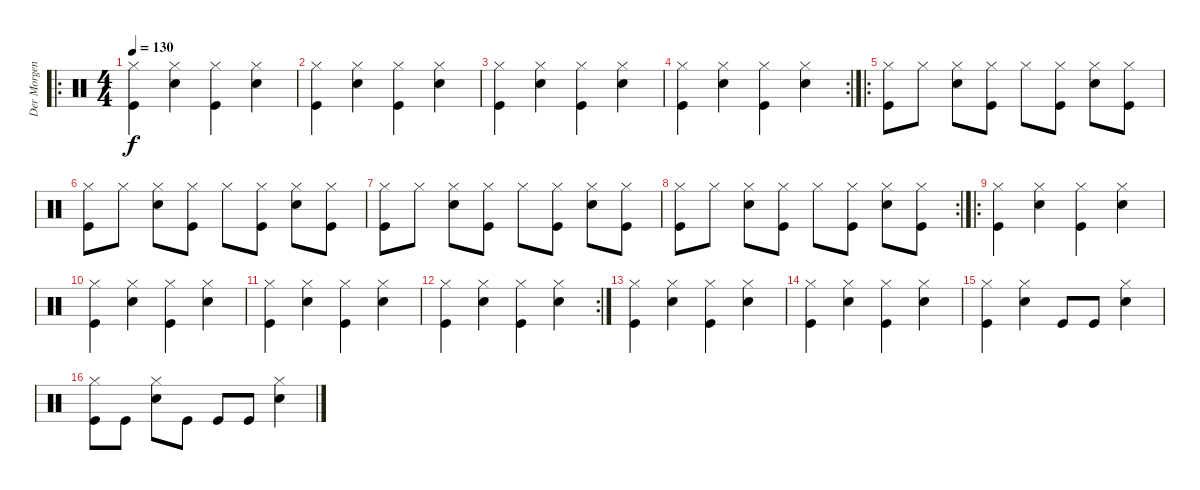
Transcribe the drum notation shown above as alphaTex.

\track ("Der Morgenstern" "Der Morgen") {instrument percussion}
\staff {score}
\articulation defaults
\ro
\ts (4 4)
\tempo 130
\clef neutral
\ks c
("Hi-Hat (closed)" "Kick (hit)").4{dy f} ("Hi-Hat (closed)" "Snare (hit) 2").4 ("Hi-Hat (closed)" "Kick (hit)").4 ("Hi-Hat (closed)" "Snare (hit) 2").4 |
("Hi-Hat (closed)" "Kick (hit)").4 ("Hi-Hat (closed)" "Snare (hit) 2").4 ("Hi-Hat (closed)" "Kick (hit)").4 ("Hi-Hat (closed)" "Snare (hit) 2").4 |
("Hi-Hat (closed)" "Kick (hit)").4 ("Hi-Hat (closed)" "Snare (hit) 2").4 ("Hi-Hat (closed)" "Kick (hit)").4 ("Hi-Hat (closed)" "Snare (hit) 2").4 |
\rc 2
("Hi-Hat (closed)" "Kick (hit)").4 ("Hi-Hat (closed)" "Snare (hit) 2").4 ("Hi-Hat (closed)" "Kick (hit)").4 ("Hi-Hat (closed)" "Snare (hit) 2").4 |
\ro
("Hi-Hat (closed)" "Kick (hit)").8 "Hi-Hat (closed)".8 ("Hi-Hat (closed)" "Snare (hit) 2").8 ("Hi-Hat (closed)" "Kick (hit)").8 "Hi-Hat (closed)".8 ("Hi-Hat (closed)" "Kick (hit)").8 ("Hi-Hat (closed)" "Snare (hit) 2").8 ("Hi-Hat (closed)" "Kick (hit)").8 |
("Hi-Hat (closed)" "Kick (hit)").8 "Hi-Hat (closed)".8 ("Hi-Hat (closed)" "Snare (hit) 2").8 ("Hi-Hat (closed)" "Kick (hit)").8 "Hi-Hat (closed)".8 ("Hi-Hat (closed)" "Kick (hit)").8 ("Hi-Hat (closed)" "Snare (hit) 2").8 ("Hi-Hat (closed)" "Kick (hit)").8 |
("Hi-Hat (closed)" "Kick (hit)").8 "Hi-Hat (closed)".8 ("Hi-Hat (closed)" "Snare (hit) 2").8 ("Hi-Hat (closed)" "Kick (hit)").8 "Hi-Hat (closed)".8 ("Hi-Hat (closed)" "Kick (hit)").8 ("Hi-Hat (closed)" "Snare (hit) 2").8 ("Hi-Hat (closed)" "Kick (hit)").8 |
\rc 2
("Hi-Hat (closed)" "Kick (hit)").8 "Hi-Hat (closed)".8 ("Hi-Hat (closed)" "Snare (hit) 2").8 ("Hi-Hat (closed)" "Kick (hit)").8 "Hi-Hat (closed)".8 ("Hi-Hat (closed)" "Kick (hit)").8 ("Hi-Hat (closed)" "Snare (hit) 2").8 ("Hi-Hat (closed)" "Kick (hit)").8 |
\ro
("Hi-Hat (closed)" "Kick (hit)").4 ("Hi-Hat (closed)" "Snare (hit) 2").4 ("Hi-Hat (closed)" "Kick (hit)").4 ("Hi-Hat (closed)" "Snare (hit) 2").4 |
("Hi-Hat (closed)" "Kick (hit)").4 ("Hi-Hat (closed)" "Snare (hit) 2").4 ("Hi-Hat (closed)" "Kick (hit)").4 ("Hi-Hat (closed)" "Snare (hit) 2").4 |
("Hi-Hat (closed)" "Kick (hit)").4 ("Hi-Hat (closed)" "Snare (hit) 2").4 ("Hi-Hat (closed)" "Kick (hit)").4 ("Hi-Hat (closed)" "Snare (hit) 2").4 |
\rc 2
("Hi-Hat (closed)" "Kick (hit)").4 ("Hi-Hat (closed)" "Snare (hit) 2").4 ("Hi-Hat (closed)" "Kick (hit)").4 ("Hi-Hat (closed)" "Snare (hit) 2").4 |
("Hi-Hat (closed)" "Kick (hit)").4 ("Hi-Hat (closed)" "Snare (hit) 2").4 ("Hi-Hat (closed)" "Kick (hit)").4 ("Hi-Hat (closed)" "Snare (hit) 2").4 |
("Hi-Hat (closed)" "Kick (hit)").4 ("Hi-Hat (closed)" "Snare (hit) 2").4 ("Hi-Hat (closed)" "Kick (hit)").4 ("Hi-Hat (closed)" "Snare (hit) 2").4 |
("Hi-Hat (closed)" "Kick (hit)").4 ("Hi-Hat (closed)" "Snare (hit) 2").4 "Kick (hit)".8 "Kick (hit)".8 ("Hi-Hat (closed)" "Snare (hit) 2").4 |
("Hi-Hat (closed)" "Kick (hit)").8 "Kick (hit)".8 ("Hi-Hat (closed)" "Snare (hit) 2").8 "Kick (hit)".8 "Kick (hit)".8 "Kick (hit)".8 ("Hi-Hat (closed)" "Snare (hit) 2").4
